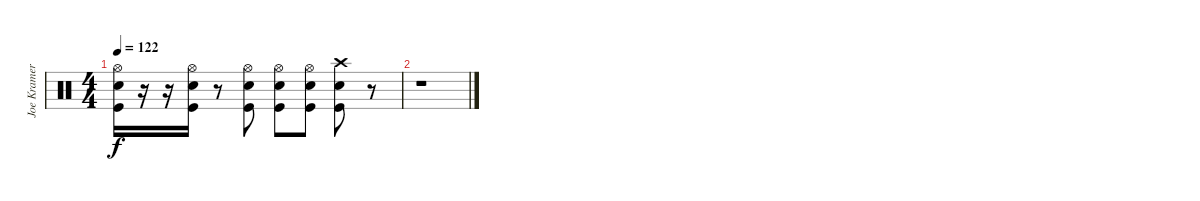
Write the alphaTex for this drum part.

\track ("Joe Kramer" "Joe Kramer") {instrument percussion}
\staff {score}
\articulation defaults
\ts (4 4)
\tempo 122
\clef neutral
\ks c
("Kick (hit)" "Snare (hit) 2" "Hi-Hat (open)").16{dy f} r.16 r.16 ("Kick (hit)" "Snare (hit) 2" "Hi-Hat (open)").16 r.8 ("Kick (hit)" "Snare (hit) 2" "Hi-Hat (open)").8 ("Kick (hit)" "Snare (hit) 2" "Hi-Hat (open)").8 ("Kick (hit)" "Snare (hit) 2" "Hi-Hat (open)").8 ("Kick (hit)" "Snare (hit) 2" "Crash high (hit)").8 r.8 |
r.1
